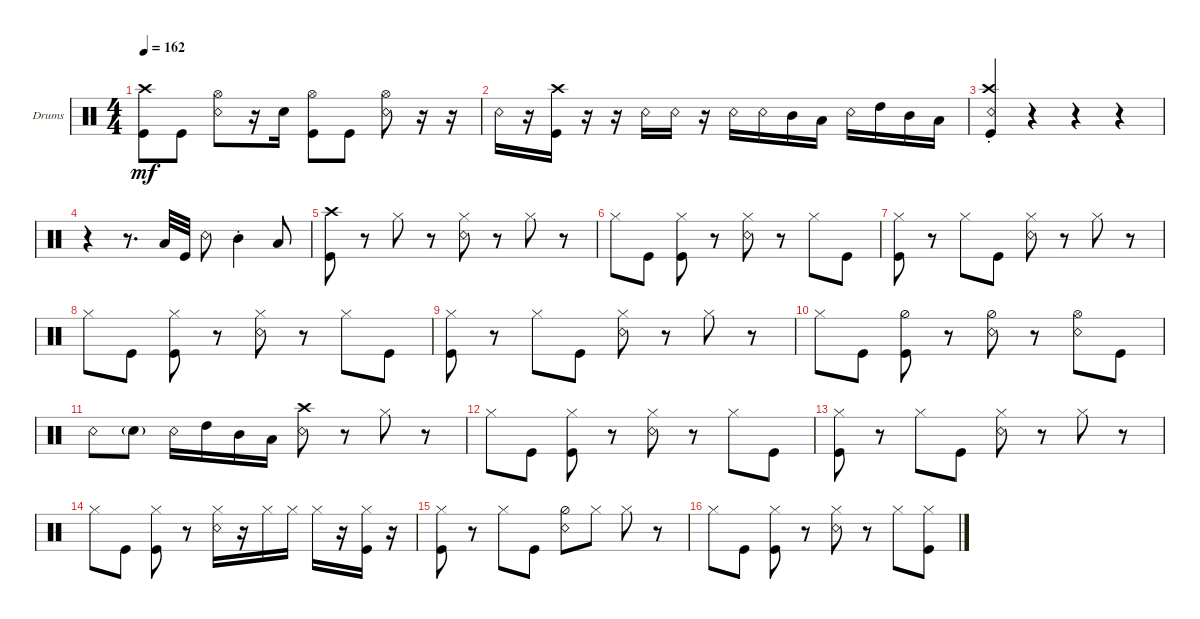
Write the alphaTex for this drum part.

\defaultSystemsLayout 4
\bracketExtendMode groupsimilarinstruments
\firstSystemTrackNameOrientation horizontal
\otherSystemsTrackNameOrientation horizontal
\track ("Drumkit" "Drums") {instrument percussion}
\staff {score}
\articulation defaults
\ts (4 4)
\tempo 162
\clef neutral
\ks c
("Kick (hit)" "Crash high (hit)").8{dy mf} "Kick (hit)".8 ("Snare (rim shot)" "Hi-Hat (open)").8 r.16 "Snare (hit) 2".16 ("Kick (hit)" "Hi-Hat (open)").8 "Kick (hit)".8 ("Snare (rim shot)" "Hi-Hat (open)").8 r.16 r.16 |
"Snare (rim shot)".16 r.16 ("Kick (hit)" "Crash high (hit)").16 r.16 r.16 "Snare (rim shot)".16 "Snare (rim shot)".16 r.16 "Snare (rim shot)".16 "Snare (rim shot)".16 "Mid Tom (hit)".16 "Low Tom (hit)".16 "Snare (rim shot)".16 "High Tom (hit)".16 "Mid Tom (hit)".16 "Low Tom (hit)".16 |
("Kick (hit)" "Snare (rim shot)" "Crash high (hit)"{st}).4 r.4 r.4 r.4 |
r.4 r.8{d} "Low Tom (hit)".32 "Kick (hit)".32 "Snare (rim shot)".8 "Mid Tom (hit)"{st}.4 "Low Tom (hit)".8 |
("Kick (hit)" "Crash high (hit)").8 r.8 "Hi-Hat (closed)".8 r.8 ("Snare (rim shot)" "Hi-Hat (closed)").8 r.8 "Hi-Hat (closed)".8 r.8 |
"Hi-Hat (closed)".8 "Kick (hit)".8 ("Kick (hit)" "Hi-Hat (closed)").8 r.8 ("Snare (rim shot)" "Hi-Hat (closed)").8 r.8 "Hi-Hat (closed)".8 "Kick (hit)".8 |
("Kick (hit)" "Hi-Hat (closed)").8 r.8 "Hi-Hat (closed)".8 "Kick (hit)".8 ("Snare (rim shot)" "Hi-Hat (closed)").8 r.8 "Hi-Hat (closed)".8 r.8 |
"Hi-Hat (closed)".8 "Kick (hit)".8 ("Kick (hit)" "Hi-Hat (closed)").8 r.8 ("Snare (rim shot)" "Hi-Hat (closed)").8 r.8 "Hi-Hat (closed)".8 "Kick (hit)".8 |
("Kick (hit)" "Hi-Hat (closed)").8 r.8 "Hi-Hat (closed)".8 "Kick (hit)".8 ("Snare (rim shot)" "Hi-Hat (closed)").8 r.8 "Hi-Hat (closed)".8 r.8 |
"Hi-Hat (closed)".8 "Kick (hit)".8 ("Kick (hit)" "Hi-Hat (half)").8 r.8 ("Snare (rim shot)" "Hi-Hat (half)").8 r.8 ("Hi-Hat (open)" "Snare (rim shot)").8 "Kick (hit)".8 |
"Snare (rim shot)".8 "Snare (hit) 2"{g}.8 "Snare (rim shot)".16 "High Tom (hit)".16 "Mid Tom (hit)".16 "Low Tom (hit)".16 ("Snare (rim shot)" "Crash high (hit)").8 r.8 "Hi-Hat (closed)".8 r.8 |
"Hi-Hat (closed)".8 "Kick (hit)".8 ("Kick (hit)" "Hi-Hat (closed)").8 r.8 ("Snare (rim shot)" "Hi-Hat (closed)").8 r.8 "Hi-Hat (closed)".8 "Kick (hit)".8 |
("Kick (hit)" "Hi-Hat (closed)").8 r.8 "Hi-Hat (closed)".8 "Kick (hit)".8 ("Snare (rim shot)" "Hi-Hat (closed)").8 r.8 "Hi-Hat (closed)".8 r.8 |
"Hi-Hat (closed)".8 "Kick (hit)".8 ("Kick (hit)" "Hi-Hat (closed)").8 r.8 ("Snare (rim shot)" "Hi-Hat (closed)").16 r.16 "Hi-Hat (closed)".16 "Hi-Hat (closed)".16 "Hi-Hat (closed)".16 r.16 ("Hi-Hat (closed)" "Kick (hit)").16 r.16 |
("Kick (hit)" "Hi-Hat (closed)").8 r.8 "Hi-Hat (closed)".8 "Kick (hit)".8 ("Snare (rim shot)" "Hi-Hat (half)").8 "Hi-Hat (closed)".8 "Hi-Hat (closed)".8 r.8 |
"Hi-Hat (closed)".8 "Kick (hit)".8 ("Kick (hit)" "Hi-Hat (closed)").8 r.8 ("Snare (rim shot)" "Hi-Hat (closed)").8 r.8 "Hi-Hat (closed)".8 ("Kick (hit)" "Hi-Hat (closed)").8
